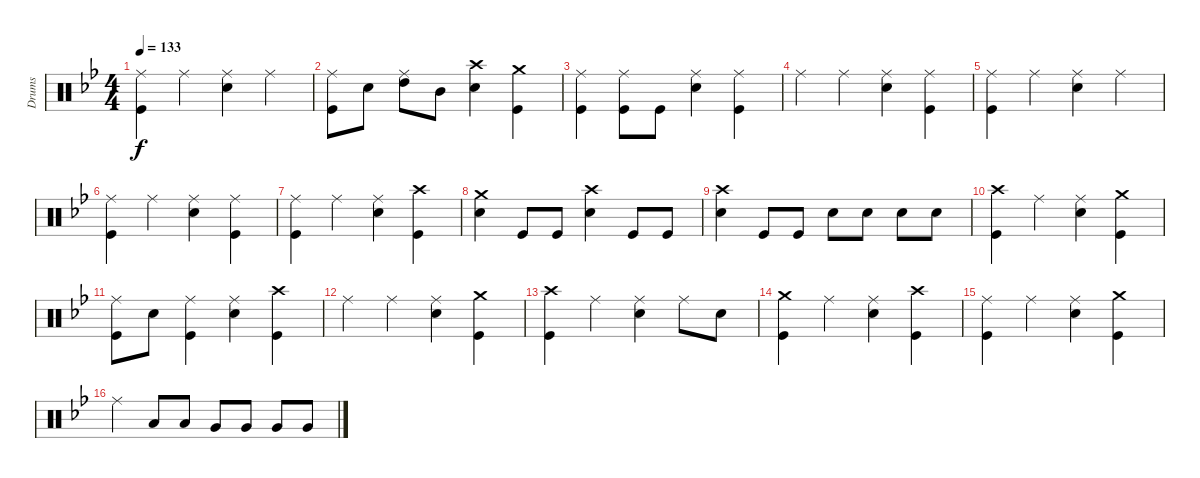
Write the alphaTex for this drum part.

\track ("Drums" "Drums") {instrument percussion}
\staff {score}
\articulation defaults
\ts (4 4)
\tempo 133
\clef neutral
\ks bb
("Ride (middle)" "Kick (hit)").4{dy f} "Ride (middle)".4 ("Ride (middle)" "Snare (hit) 2").4 "Ride (middle)".4 |
("Ride (middle)" "Kick (hit)").8 "Snare (hit) 2".8 ("Ride (middle)" "High Tom (hit)").8 "Mid Tom (hit)".8 ("Crash high (hit)" "Snare (hit) 2").4 ("Crash medium (hit)" "Kick (hit)").4 |
("Ride (middle)" "Kick (hit)").4 ("Ride (middle)" "Kick (hit)").8 "Kick (hit)".8 ("Ride (middle)" "Snare (hit) 2").4 ("Ride (middle)" "Kick (hit)").4 |
"Ride (middle)".4 "Ride (middle)".4 ("Ride (middle)" "Snare (hit) 2").4 ("Ride (middle)" "Kick (hit)").4 |
("Ride (middle)" "Kick (hit)").4 "Ride (middle)".4 ("Ride (middle)" "Snare (hit) 2").4 "Ride (middle)".4 |
("Ride (middle)" "Kick (hit)").4 "Ride (middle)".4 ("Ride (middle)" "Snare (hit) 2").4 ("Ride (middle)" "Kick (hit)").4 |
("Ride (middle)" "Kick (hit)").4 "Ride (middle)".4 ("Ride (middle)" "Snare (hit) 2").4 ("Crash high (hit)" "Kick (hit)").4 |
("Crash medium (hit)" "Snare (hit) 2").4 "Kick (hit)".8 "Kick (hit)".8 ("Crash high (hit)" "Snare (hit) 2").4 "Kick (hit)".8 "Kick (hit)".8 |
("Crash high (hit)" "Snare (hit) 2").4 "Kick (hit)".8 "Kick (hit)".8 "Snare (hit) 2".8 "Snare (hit) 2".8 "Snare (hit) 2".8 "Snare (hit) 2".8 |
("Crash high (hit)" "Kick (hit)").4 "Ride (middle)".4 ("Ride (middle)" "Snare (hit) 2").4 ("Crash medium (hit)" "Kick (hit)").4 |
("Ride (middle)" "Kick (hit)").8 "Snare (hit) 2".8 ("Ride (middle)" "Kick (hit)").4 ("Ride (middle)" "Snare (hit) 2").4 ("Crash high (hit)" "Kick (hit)").4 |
"Ride (middle)".4 "Ride (middle)".4 ("Ride (middle)" "Snare (hit) 2").4 ("Crash medium (hit)" "Kick (hit)").4 |
("Crash high (hit)" "Kick (hit)").4 "Ride (middle)".4 ("Ride (middle)" "Snare (hit) 2").4 "Ride (middle)".8 "Snare (hit) 2".8 |
("Crash medium (hit)" "Kick (hit)").4 "Ride (middle)".4 ("Ride (middle)" "Snare (hit) 2").4 ("Crash high (hit)" "Kick (hit)").4 |
("Ride (middle)" "Kick (hit)").4 "Ride (middle)".4 ("Ride (middle)" "Snare (hit) 2").4 ("Crash medium (hit)" "Kick (hit)").4 |
"Ride (middle)".4 "Low Floor Tom (hit)".8 "Low Floor Tom (hit)".8 "Very Low Tom (hit)".8 "Very Low Tom (hit)".8 "Very Low Tom (hit)".8 "Very Low Tom (hit)".8
